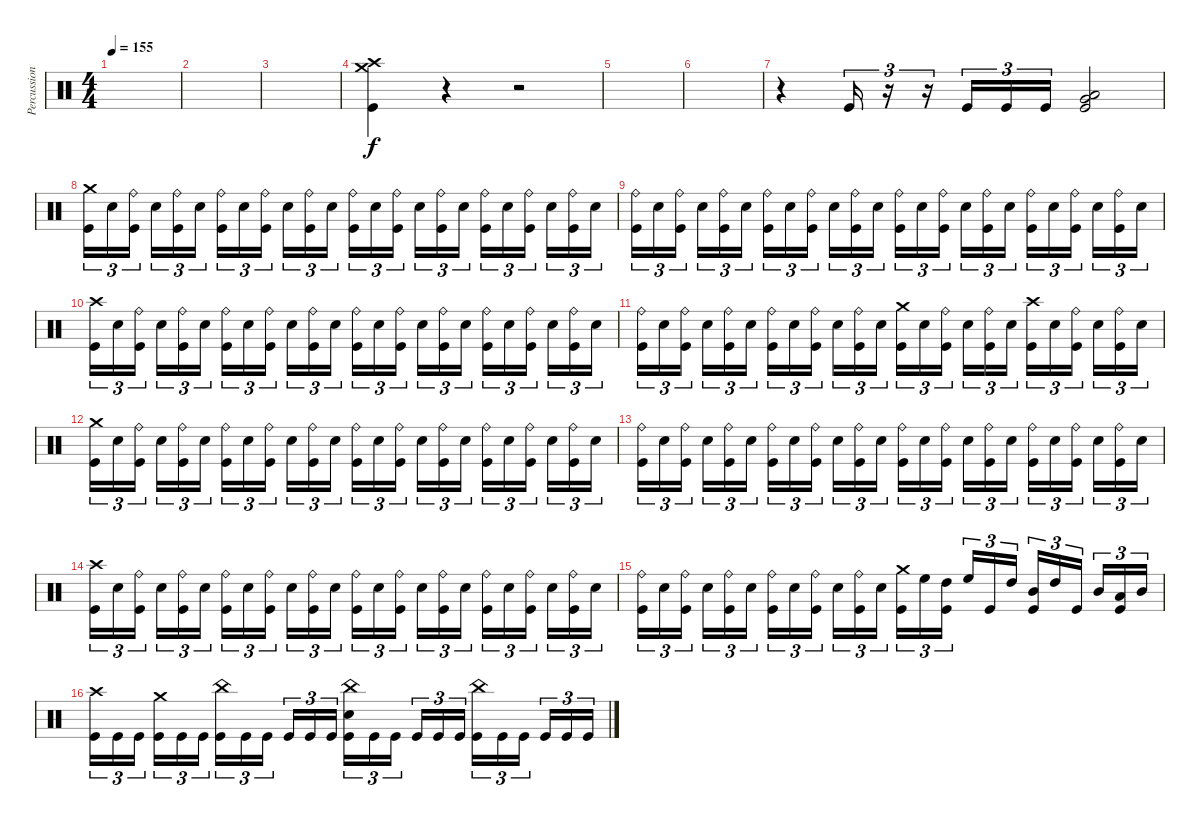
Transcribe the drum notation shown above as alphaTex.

\track ("Percussion" "Percussion") {instrument percussion}
\staff {score}
\articulation defaults
\ts (4 4)
\tempo 155
\clef neutral
\ks c
|
|
|
("Crash medium (hit)" "Crash high (hit)" "Kick (hit)").4 r.4 r.2 |
|
|
r.4 "Kick (hit)".16{tu (3 2)} r.16{tu (3 2)} r.16{tu (3 2)} "Kick (hit)".16{tu (3 2)} "Kick (hit)".16{tu (3 2)} "Kick (hit)".16{tu (3 2)} ("Low Floor Tom (hit)" "Very Low Tom (hit)" "Kick (hit)").2 |
("Crash medium (hit)" "Kick (hit)").16{tu (3 2)} "Snare (hit) 2".16{tu (3 2)} ("Ride (bell)" "Kick (hit)").16{tu (3 2) beam splitsecondary} "Snare (hit) 2".16{tu (3 2)} ("Ride (bell)" "Kick (hit)").16{tu (3 2)} "Snare (hit) 2".16{tu (3 2)} ("Ride (bell)" "Kick (hit)").16{tu (3 2)} "Snare (hit) 2".16{tu (3 2)} ("Ride (bell)" "Kick (hit)").16{tu (3 2) beam splitsecondary} "Snare (hit) 2".16{tu (3 2)} ("Ride (bell)" "Kick (hit)").16{tu (3 2)} "Snare (hit) 2".16{tu (3 2)} ("Ride (bell)" "Kick (hit)").16{tu (3 2)} "Snare (hit) 2".16{tu (3 2)} ("Ride (bell)" "Kick (hit)").16{tu (3 2) beam splitsecondary} "Snare (hit) 2".16{tu (3 2)} ("Ride (bell)" "Kick (hit)").16{tu (3 2)} "Snare (hit) 2".16{tu (3 2)} ("Ride (bell)" "Kick (hit)").16{tu (3 2)} "Snare (hit) 2".16{tu (3 2)} ("Ride (bell)" "Kick (hit)").16{tu (3 2) beam splitsecondary} "Snare (hit) 2".16{tu (3 2)} ("Ride (bell)" "Kick (hit)").16{tu (3 2)} "Snare (hit) 2".16{tu (3 2)} |
("Ride (bell)" "Kick (hit)").16{tu (3 2)} "Snare (hit) 2".16{tu (3 2)} ("Ride (bell)" "Kick (hit)").16{tu (3 2) beam splitsecondary} "Snare (hit) 2".16{tu (3 2)} ("Ride (bell)" "Kick (hit)").16{tu (3 2)} "Snare (hit) 2".16{tu (3 2)} ("Ride (bell)" "Kick (hit)").16{tu (3 2)} "Snare (hit) 2".16{tu (3 2)} ("Ride (bell)" "Kick (hit)").16{tu (3 2) beam splitsecondary} "Snare (hit) 2".16{tu (3 2)} ("Ride (bell)" "Kick (hit)").16{tu (3 2)} "Snare (hit) 2".16{tu (3 2)} ("Ride (bell)" "Kick (hit)").16{tu (3 2)} "Snare (hit) 2".16{tu (3 2)} ("Ride (bell)" "Kick (hit)").16{tu (3 2) beam splitsecondary} "Snare (hit) 2".16{tu (3 2)} ("Ride (bell)" "Kick (hit)").16{tu (3 2)} "Snare (hit) 2".16{tu (3 2)} ("Ride (bell)" "Kick (hit)").16{tu (3 2)} "Snare (hit) 2".16{tu (3 2)} ("Ride (bell)" "Kick (hit)").16{tu (3 2) beam splitsecondary} "Snare (hit) 2".16{tu (3 2)} ("Ride (bell)" "Kick (hit)").16{tu (3 2)} "Snare (hit) 2".16{tu (3 2)} |
("Crash high (hit)" "Kick (hit)").16{tu (3 2)} "Snare (hit) 2".16{tu (3 2)} ("Ride (bell)" "Kick (hit)").16{tu (3 2) beam splitsecondary} "Snare (hit) 2".16{tu (3 2)} ("Ride (bell)" "Kick (hit)").16{tu (3 2)} "Snare (hit) 2".16{tu (3 2)} ("Ride (bell)" "Kick (hit)").16{tu (3 2)} "Snare (hit) 2".16{tu (3 2)} ("Ride (bell)" "Kick (hit)").16{tu (3 2) beam splitsecondary} "Snare (hit) 2".16{tu (3 2)} ("Ride (bell)" "Kick (hit)").16{tu (3 2)} "Snare (hit) 2".16{tu (3 2)} ("Ride (bell)" "Kick (hit)").16{tu (3 2)} "Snare (hit) 2".16{tu (3 2)} ("Ride (bell)" "Kick (hit)").16{tu (3 2) beam splitsecondary} "Snare (hit) 2".16{tu (3 2)} ("Ride (bell)" "Kick (hit)").16{tu (3 2)} "Snare (hit) 2".16{tu (3 2)} ("Ride (bell)" "Kick (hit)").16{tu (3 2)} "Snare (hit) 2".16{tu (3 2)} ("Ride (bell)" "Kick (hit)").16{tu (3 2) beam splitsecondary} "Snare (hit) 2".16{tu (3 2)} ("Ride (bell)" "Kick (hit)").16{tu (3 2)} "Snare (hit) 2".16{tu (3 2)} |
("Ride (bell)" "Kick (hit)").16{tu (3 2)} "Snare (hit) 2".16{tu (3 2)} ("Ride (bell)" "Kick (hit)").16{tu (3 2) beam splitsecondary} "Snare (hit) 2".16{tu (3 2)} ("Ride (bell)" "Kick (hit)").16{tu (3 2)} "Snare (hit) 2".16{tu (3 2)} ("Ride (bell)" "Kick (hit)").16{tu (3 2)} "Snare (hit) 2".16{tu (3 2)} ("Ride (bell)" "Kick (hit)").16{tu (3 2) beam splitsecondary} "Snare (hit) 2".16{tu (3 2)} ("Ride (bell)" "Kick (hit)").16{tu (3 2)} "Snare (hit) 2".16{tu (3 2)} ("Crash medium (hit)" "Kick (hit)").16{tu (3 2)} "Snare (hit) 2".16{tu (3 2)} ("Ride (bell)" "Kick (hit)").16{tu (3 2) beam splitsecondary} "Snare (hit) 2".16{tu (3 2)} ("Ride (bell)" "Kick (hit)").16{tu (3 2)} "Snare (hit) 2".16{tu (3 2)} ("Crash high (hit)" "Kick (hit)").16{tu (3 2)} "Snare (hit) 2".16{tu (3 2)} ("Ride (bell)" "Kick (hit)").16{tu (3 2) beam splitsecondary} "Snare (hit) 2".16{tu (3 2)} ("Ride (bell)" "Kick (hit)").16{tu (3 2)} "Snare (hit) 2".16{tu (3 2)} |
("Crash medium (hit)" "Kick (hit)").16{tu (3 2)} "Snare (hit) 2".16{tu (3 2)} ("Ride (bell)" "Kick (hit)").16{tu (3 2) beam splitsecondary} "Snare (hit) 2".16{tu (3 2)} ("Ride (bell)" "Kick (hit)").16{tu (3 2)} "Snare (hit) 2".16{tu (3 2)} ("Ride (bell)" "Kick (hit)").16{tu (3 2)} "Snare (hit) 2".16{tu (3 2)} ("Ride (bell)" "Kick (hit)").16{tu (3 2) beam splitsecondary} "Snare (hit) 2".16{tu (3 2)} ("Ride (bell)" "Kick (hit)").16{tu (3 2)} "Snare (hit) 2".16{tu (3 2)} ("Ride (bell)" "Kick (hit)").16{tu (3 2)} "Snare (hit) 2".16{tu (3 2)} ("Ride (bell)" "Kick (hit)").16{tu (3 2) beam splitsecondary} "Snare (hit) 2".16{tu (3 2)} ("Ride (bell)" "Kick (hit)").16{tu (3 2)} "Snare (hit) 2".16{tu (3 2)} ("Ride (bell)" "Kick (hit)").16{tu (3 2)} "Snare (hit) 2".16{tu (3 2)} ("Ride (bell)" "Kick (hit)").16{tu (3 2) beam splitsecondary} "Snare (hit) 2".16{tu (3 2)} ("Ride (bell)" "Kick (hit)").16{tu (3 2)} "Snare (hit) 2".16{tu (3 2)} |
("Ride (bell)" "Kick (hit)").16{tu (3 2)} "Snare (hit) 2".16{tu (3 2)} ("Ride (bell)" "Kick (hit)").16{tu (3 2) beam splitsecondary} "Snare (hit) 2".16{tu (3 2)} ("Ride (bell)" "Kick (hit)").16{tu (3 2)} "Snare (hit) 2".16{tu (3 2)} ("Ride (bell)" "Kick (hit)").16{tu (3 2)} "Snare (hit) 2".16{tu (3 2)} ("Ride (bell)" "Kick (hit)").16{tu (3 2) beam splitsecondary} "Snare (hit) 2".16{tu (3 2)} ("Ride (bell)" "Kick (hit)").16{tu (3 2)} "Snare (hit) 2".16{tu (3 2)} ("Ride (bell)" "Kick (hit)").16{tu (3 2)} "Snare (hit) 2".16{tu (3 2)} ("Ride (bell)" "Kick (hit)").16{tu (3 2) beam splitsecondary} "Snare (hit) 2".16{tu (3 2)} ("Ride (bell)" "Kick (hit)").16{tu (3 2)} "Snare (hit) 2".16{tu (3 2)} ("Ride (bell)" "Kick (hit)").16{tu (3 2)} "Snare (hit) 2".16{tu (3 2)} ("Ride (bell)" "Kick (hit)").16{tu (3 2) beam splitsecondary} "Snare (hit) 2".16{tu (3 2)} ("Ride (bell)" "Kick (hit)").16{tu (3 2)} "Snare (hit) 2".16{tu (3 2)} |
("Crash high (hit)" "Kick (hit)").16{tu (3 2)} "Snare (hit) 2".16{tu (3 2)} ("Ride (bell)" "Kick (hit)").16{tu (3 2) beam splitsecondary} "Snare (hit) 2".16{tu (3 2)} ("Ride (bell)" "Kick (hit)").16{tu (3 2)} "Snare (hit) 2".16{tu (3 2)} ("Ride (bell)" "Kick (hit)").16{tu (3 2)} "Snare (hit) 2".16{tu (3 2)} ("Ride (bell)" "Kick (hit)").16{tu (3 2) beam splitsecondary} "Snare (hit) 2".16{tu (3 2)} ("Ride (bell)" "Kick (hit)").16{tu (3 2)} "Snare (hit) 2".16{tu (3 2)} ("Ride (bell)" "Kick (hit)").16{tu (3 2)} "Snare (hit) 2".16{tu (3 2)} ("Ride (bell)" "Kick (hit)").16{tu (3 2) beam splitsecondary} "Snare (hit) 2".16{tu (3 2)} ("Ride (bell)" "Kick (hit)").16{tu (3 2)} "Snare (hit) 2".16{tu (3 2)} ("Ride (bell)" "Kick (hit)").16{tu (3 2)} "Snare (hit) 2".16{tu (3 2)} ("Ride (bell)" "Kick (hit)").16{tu (3 2) beam splitsecondary} "Snare (hit) 2".16{tu (3 2)} ("Ride (bell)" "Kick (hit)").16{tu (3 2)} "Snare (hit) 2".16{tu (3 2)} |
("Ride (bell)" "Kick (hit)").16{tu (3 2)} "Snare (hit) 2".16{tu (3 2)} ("Ride (bell)" "Kick (hit)").16{tu (3 2) beam splitsecondary} "Snare (hit) 2".16{tu (3 2)} ("Ride (bell)" "Kick (hit)").16{tu (3 2)} "Snare (hit) 2".16{tu (3 2)} ("Ride (bell)" "Kick (hit)").16{tu (3 2)} "Snare (hit) 2".16{tu (3 2)} ("Ride (bell)" "Kick (hit)").16{tu (3 2) beam splitsecondary} "Snare (hit) 2".16{tu (3 2)} ("Ride (bell)" "Kick (hit)").16{tu (3 2)} "Snare (hit) 2".16{tu (3 2)} ("Crash medium (hit)" "Kick (hit)").16{tu (3 2)} "High Floor Tom (hit)".16{tu (3 2)} ("High Tom (hit)" "Kick (hit)").16{tu (3 2) beam splitsecondary} "High Floor Tom (hit)".16{tu (3 2)} "Kick (hit)".16{tu (3 2)} "High Tom (hit)".16{tu (3 2)} ("Mid Tom (hit)" "Kick (hit)").16{tu (3 2)} "High Tom (hit)".16{tu (3 2)} "Kick (hit)".16{tu (3 2) beam splitsecondary} "Mid Tom (hit)".16{tu (3 2)} ("Low Tom (hit)" "Kick (hit)").16{tu (3 2)} "Mid Tom (hit)".16{tu (3 2)} |
("Crash high (hit)" "Kick (hit)").16{tu (3 2)} "Kick (hit)".16{tu (3 2)} "Kick (hit)".16{tu (3 2) beam splitsecondary} ("Crash medium (hit)" "Kick (hit)").16{tu (3 2)} "Kick (hit)".16{tu (3 2)} "Kick (hit)".16{tu (3 2)} ("China (hit)" "Kick (hit)").16{tu (3 2)} "Kick (hit)".16{tu (3 2)} "Kick (hit)".16{tu (3 2) beam splitsecondary} "Kick (hit)".16{tu (3 2)} "Kick (hit)".16{tu (3 2)} "Kick (hit)".16{tu (3 2)} ("China (hit)" "Snare (hit) 2" "Kick (hit)").16{tu (3 2)} "Kick (hit)".16{tu (3 2)} "Kick (hit)".16{tu (3 2) beam splitsecondary} "Kick (hit)".16{tu (3 2)} "Kick (hit)".16{tu (3 2)} "Kick (hit)".16{tu (3 2)} ("China (hit)" "Kick (hit)").16{tu (3 2)} "Kick (hit)".16{tu (3 2)} "Kick (hit)".16{tu (3 2) beam splitsecondary} "Kick (hit)".16{tu (3 2)} "Kick (hit)".16{tu (3 2)} "Kick (hit)".16{tu (3 2)}
